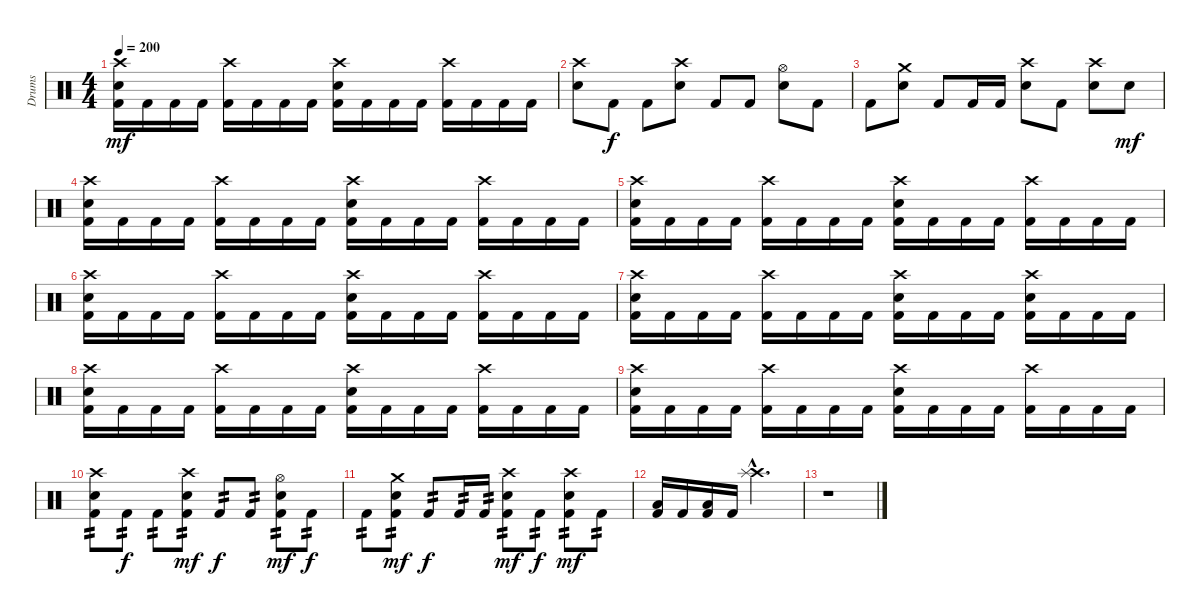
\track ("Drums" "Drums") {instrument percussion}
\staff {score}
\articulation defaults
\ts (4 4)
\tempo 200
\clef neutral
\ks c
("Crash high (hit)" "Electric Snare (hit)" "Kick (hit) 2").16{dy mf} "Kick (hit) 2".16 "Kick (hit) 2".16 "Kick (hit) 2".16 ("Crash high (hit)" "Kick (hit) 2").16 "Kick (hit) 2".16 "Kick (hit) 2".16 "Kick (hit) 2".16 ("Crash high (hit)" "Electric Snare (hit)" "Kick (hit) 2").16 "Kick (hit) 2".16 "Kick (hit) 2".16 "Kick (hit) 2".16 ("Crash high (hit)" "Kick (hit) 2").16 "Kick (hit) 2".16 "Kick (hit) 2".16 "Kick (hit) 2".16 |
("Crash high (hit)" "Electric Snare (hit)").8 "Kick (hit) 2".8{dy f} "Kick (hit) 2".8 ("Crash high (hit)" "Electric Snare (hit)").8 "Kick (hit) 2".8 "Kick (hit) 2".8 ("Hi-Hat (open)" "Electric Snare (hit)").8 "Kick (hit) 2".8 |
"Kick (hit) 2".8 ("Crash medium (hit)" "Electric Snare (hit)").8 "Kick (hit) 2".8 "Kick (hit) 2".16 "Kick (hit) 2".16 ("Crash high (hit)" "Electric Snare (hit)").8 "Kick (hit) 2".8 ("Crash high (hit)" "Electric Snare (hit)").8 "Electric Snare (hit)".8{dy mf} |
("Crash high (hit)" "Electric Snare (hit)" "Kick (hit) 2").16 "Kick (hit) 2".16 "Kick (hit) 2".16 "Kick (hit) 2".16 ("Crash high (hit)" "Kick (hit) 2").16 "Kick (hit) 2".16 "Kick (hit) 2".16 "Kick (hit) 2".16 ("Crash high (hit)" "Electric Snare (hit)" "Kick (hit) 2").16 "Kick (hit) 2".16 "Kick (hit) 2".16 "Kick (hit) 2".16 ("Crash high (hit)" "Kick (hit) 2").16 "Kick (hit) 2".16 "Kick (hit) 2".16 "Kick (hit) 2".16 |
("Crash high (hit)" "Electric Snare (hit)" "Kick (hit) 2").16 "Kick (hit) 2".16 "Kick (hit) 2".16 "Kick (hit) 2".16 ("Crash high (hit)" "Kick (hit) 2").16 "Kick (hit) 2".16 "Kick (hit) 2".16 "Kick (hit) 2".16 ("Crash high (hit)" "Electric Snare (hit)" "Kick (hit) 2").16 "Kick (hit) 2".16 "Kick (hit) 2".16 "Kick (hit) 2".16 ("Crash high (hit)" "Kick (hit) 2").16 "Kick (hit) 2".16 "Kick (hit) 2".16 "Kick (hit) 2".16 |
("Crash high (hit)" "Electric Snare (hit)" "Kick (hit) 2").16 "Kick (hit) 2".16 "Kick (hit) 2".16 "Kick (hit) 2".16 ("Crash high (hit)" "Kick (hit) 2").16 "Kick (hit) 2".16 "Kick (hit) 2".16 "Kick (hit) 2".16 ("Crash high (hit)" "Electric Snare (hit)" "Kick (hit) 2").16 "Kick (hit) 2".16 "Kick (hit) 2".16 "Kick (hit) 2".16 ("Crash high (hit)" "Kick (hit) 2").16 "Kick (hit) 2".16 "Kick (hit) 2".16 "Kick (hit) 2".16 |
("Crash high (hit)" "Electric Snare (hit)" "Kick (hit) 2").16 "Kick (hit) 2".16 "Kick (hit) 2".16 "Kick (hit) 2".16 ("Crash high (hit)" "Kick (hit) 2").16 "Kick (hit) 2".16 "Kick (hit) 2".16 "Kick (hit) 2".16 ("Crash high (hit)" "Electric Snare (hit)" "Kick (hit) 2").16 "Kick (hit) 2".16 "Kick (hit) 2".16 "Kick (hit) 2".16 ("Crash high (hit)" "Electric Snare (hit)" "Kick (hit) 2").16 "Kick (hit) 2".16 "Kick (hit) 2".16 "Kick (hit) 2".16 |
("Crash high (hit)" "Electric Snare (hit)" "Kick (hit) 2").16 "Kick (hit) 2".16 "Kick (hit) 2".16 "Kick (hit) 2".16 ("Crash high (hit)" "Kick (hit) 2").16 "Kick (hit) 2".16 "Kick (hit) 2".16 "Kick (hit) 2".16 ("Crash high (hit)" "Electric Snare (hit)" "Kick (hit) 2").16 "Kick (hit) 2".16 "Kick (hit) 2".16 "Kick (hit) 2".16 ("Crash high (hit)" "Kick (hit) 2").16 "Kick (hit) 2".16 "Kick (hit) 2".16 "Kick (hit) 2".16 |
("Crash high (hit)" "Electric Snare (hit)" "Kick (hit) 2").16 "Kick (hit) 2".16 "Kick (hit) 2".16 "Kick (hit) 2".16 ("Crash high (hit)" "Kick (hit) 2").16 "Kick (hit) 2".16 "Kick (hit) 2".16 "Kick (hit) 2".16 ("Crash high (hit)" "Electric Snare (hit)" "Kick (hit) 2").16 "Kick (hit) 2".16 "Kick (hit) 2".16 "Kick (hit) 2".16 ("Crash high (hit)" "Kick (hit) 2").16 "Kick (hit) 2".16 "Kick (hit) 2".16 "Kick (hit) 2".16 |
("Crash high (hit)" "Electric Snare (hit)" "Kick (hit) 2").8{tp 2} "Kick (hit) 2".8{tp 2 dy f} "Kick (hit) 2".8{tp 2} ("Crash high (hit)" "Electric Snare (hit)" "Kick (hit) 2").8{tp 2 dy mf} "Kick (hit) 2".8{tp 2 dy f} "Kick (hit) 2".8{tp 2} ("Hi-Hat (open)" "Electric Snare (hit)" "Kick (hit) 2").8{tp 2 dy mf} "Kick (hit) 2".8{tp 2 dy f} |
"Kick (hit) 2".8{tp 2} ("Crash medium (hit)" "Electric Snare (hit)" "Kick (hit) 2").8{tp 2 dy mf} "Kick (hit) 2".8{tp 2 dy f} "Kick (hit) 2".16{tp 2} "Kick (hit) 2".16{tp 2} ("Crash high (hit)" "Electric Snare (hit)" "Kick (hit) 2").8{tp 2 dy mf} "Kick (hit) 2".8{tp 2 dy f} ("Crash high (hit)" "Electric Snare (hit)" "Kick (hit) 2").8{tp 2 dy mf} "Kick (hit) 2".8{tp 2} |
("Low Floor Tom (hit)" "Kick (hit) 2").16 "Kick (hit) 2".16 ("Low Floor Tom (hit)" "Kick (hit) 2").16 "Kick (hit) 2".16 ("Crash high (hit)"{hac} "Splash (hit)"{hac}).2{d} |
r.1
